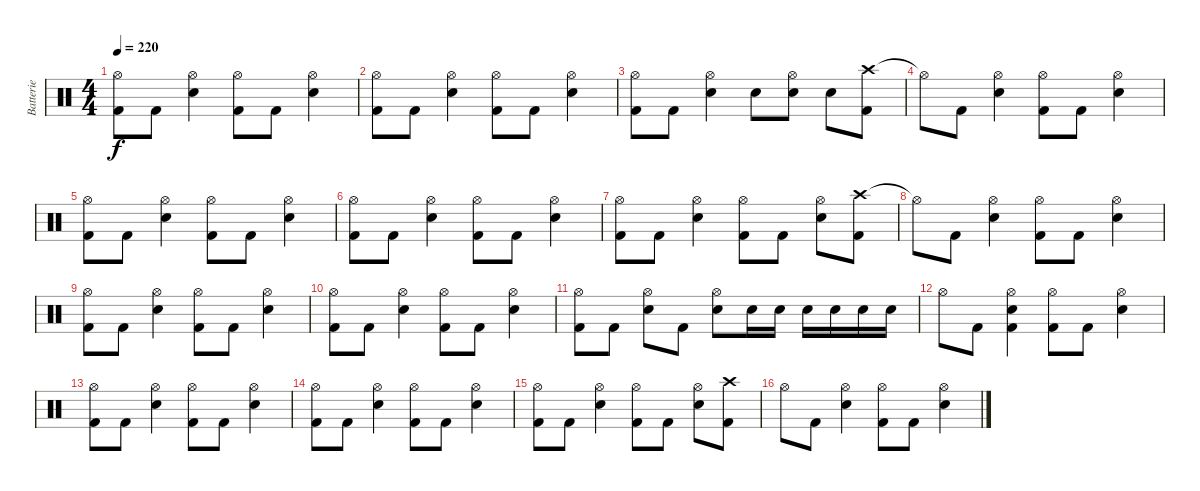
\track ("Batterie" "Batterie") {instrument percussion}
\staff {score}
\articulation defaults
\ts (4 4)
\tempo 220
\clef neutral
\ks c
("Hi-Hat (open)" "Kick (hit) 2").8{dy f} "Kick (hit) 2".8 ("Hi-Hat (open)" "Electric Snare (hit)").4 ("Hi-Hat (open)" "Kick (hit) 2").8 "Kick (hit) 2".8 ("Hi-Hat (open)" "Electric Snare (hit)").4 |
("Hi-Hat (open)" "Kick (hit) 2").8 "Kick (hit) 2".8 ("Hi-Hat (open)" "Electric Snare (hit)").4 ("Hi-Hat (open)" "Kick (hit) 2").8 "Kick (hit) 2".8 ("Hi-Hat (open)" "Electric Snare (hit)").4 |
("Hi-Hat (open)" "Kick (hit) 2").8 "Kick (hit) 2".8 ("Hi-Hat (open)" "Electric Snare (hit)").4 "Electric Snare (hit)".8 ("Hi-Hat (open)" "Electric Snare (hit)").8 "Electric Snare (hit)".8 ("Crash high (hit)" "Kick (hit) 2").8 |
"Hi-Hat (open)"{t}.8 "Kick (hit) 2".8 ("Hi-Hat (open)" "Electric Snare (hit)").4 ("Hi-Hat (open)" "Kick (hit) 2").8 "Kick (hit) 2".8 ("Hi-Hat (open)" "Electric Snare (hit)").4 |
("Hi-Hat (open)" "Kick (hit) 2").8 "Kick (hit) 2".8 ("Hi-Hat (open)" "Electric Snare (hit)").4 ("Hi-Hat (open)" "Kick (hit) 2").8 "Kick (hit) 2".8 ("Hi-Hat (open)" "Electric Snare (hit)").4 |
("Hi-Hat (open)" "Kick (hit) 2").8 "Kick (hit) 2".8 ("Hi-Hat (open)" "Electric Snare (hit)").4 ("Hi-Hat (open)" "Kick (hit) 2").8 "Kick (hit) 2".8 ("Hi-Hat (open)" "Electric Snare (hit)").4 |
("Hi-Hat (open)" "Kick (hit) 2").8 "Kick (hit) 2".8 ("Hi-Hat (open)" "Electric Snare (hit)").4 ("Hi-Hat (open)" "Kick (hit) 2").8 "Kick (hit) 2".8 ("Hi-Hat (open)" "Electric Snare (hit)").8 ("Crash high (hit)" "Kick (hit) 2").8 |
"Hi-Hat (open)"{t}.8 "Kick (hit) 2".8 ("Hi-Hat (open)" "Electric Snare (hit)").4 ("Hi-Hat (open)" "Kick (hit) 2").8 "Kick (hit) 2".8 ("Hi-Hat (open)" "Electric Snare (hit)").4 |
("Hi-Hat (open)" "Kick (hit) 2").8 "Kick (hit) 2".8 ("Hi-Hat (open)" "Electric Snare (hit)").4 ("Hi-Hat (open)" "Kick (hit) 2").8 "Kick (hit) 2".8 ("Hi-Hat (open)" "Electric Snare (hit)").4 |
("Hi-Hat (open)" "Kick (hit) 2").8 "Kick (hit) 2".8 ("Hi-Hat (open)" "Electric Snare (hit)").4 ("Hi-Hat (open)" "Kick (hit) 2").8 "Kick (hit) 2".8 ("Hi-Hat (open)" "Electric Snare (hit)").4 |
("Hi-Hat (open)" "Kick (hit) 2").8 "Kick (hit) 2".8 ("Hi-Hat (open)" "Electric Snare (hit)").8 "Kick (hit) 2".8 ("Hi-Hat (open)" "Electric Snare (hit)").8 "Electric Snare (hit)".16 "Electric Snare (hit)".16 "Electric Snare (hit)".16 "Electric Snare (hit)".16 "Electric Snare (hit)".16 "Electric Snare (hit)".16 |
"Hi-Hat (open)".8 "Kick (hit) 2".8 ("Hi-Hat (open)" "Electric Snare (hit)" "Kick (hit) 2").4 ("Hi-Hat (open)" "Kick (hit) 2").8 "Kick (hit) 2".8 ("Hi-Hat (open)" "Electric Snare (hit)").4 |
("Hi-Hat (open)" "Kick (hit) 2").8 "Kick (hit) 2".8 ("Hi-Hat (open)" "Electric Snare (hit)").4 ("Hi-Hat (open)" "Kick (hit) 2").8 "Kick (hit) 2".8 ("Hi-Hat (open)" "Electric Snare (hit)").4 |
("Hi-Hat (open)" "Kick (hit) 2").8 "Kick (hit) 2".8 ("Hi-Hat (open)" "Electric Snare (hit)").4 ("Hi-Hat (open)" "Kick (hit) 2").8 "Kick (hit) 2".8 ("Hi-Hat (open)" "Electric Snare (hit)").4 |
("Hi-Hat (open)" "Kick (hit) 2").8 "Kick (hit) 2".8 ("Hi-Hat (open)" "Electric Snare (hit)").4 ("Hi-Hat (open)" "Kick (hit) 2").8 "Kick (hit) 2".8 ("Hi-Hat (open)" "Electric Snare (hit)").8 ("Crash high (hit)" "Kick (hit) 2").8 |
"Hi-Hat (open)".8 "Kick (hit) 2".8 ("Hi-Hat (open)" "Electric Snare (hit)").4 ("Hi-Hat (open)" "Kick (hit) 2").8 "Kick (hit) 2".8 ("Hi-Hat (open)" "Electric Snare (hit)").4
